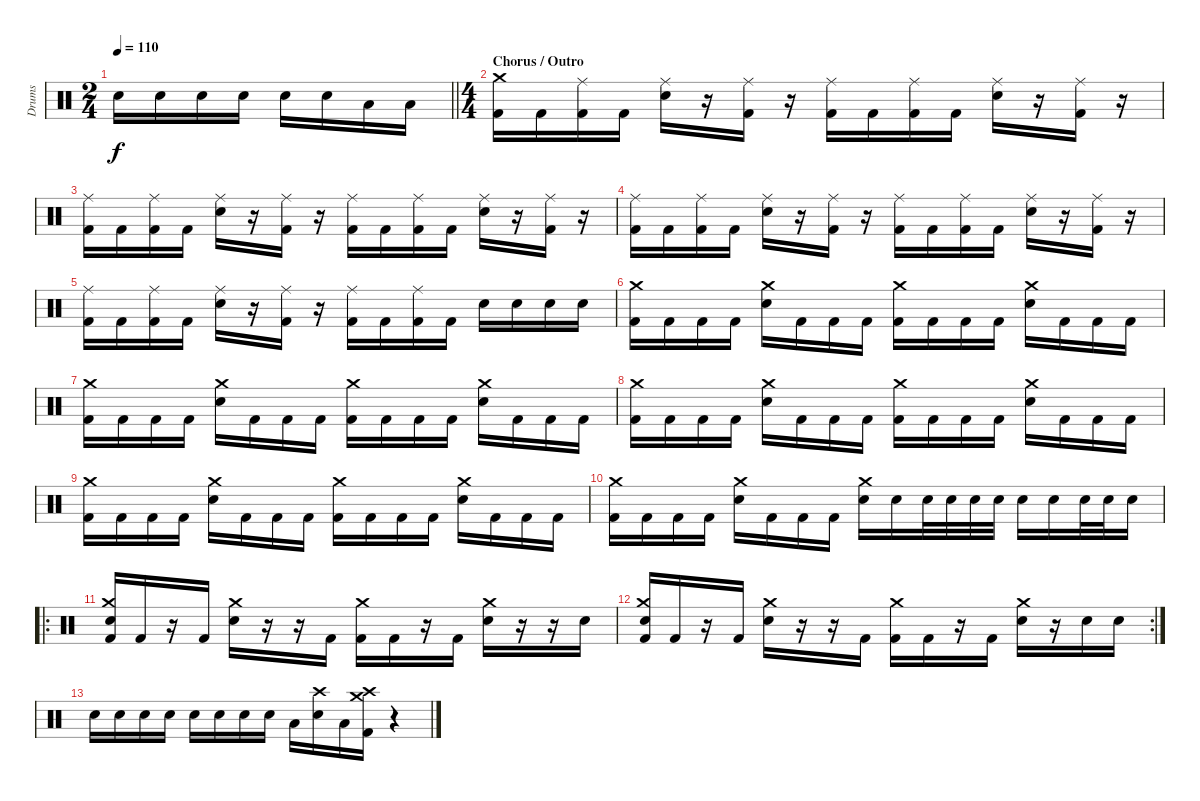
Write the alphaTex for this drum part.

\track ("Drums" "Drums") {instrument percussion}
\staff {score}
\articulation defaults
\ts (2 4)
\tempo 110
\clef neutral
\barLineRight lightlight
\ks c "Electric Snare (hit)".16{dy f} "Electric Snare (hit)".16 "Electric Snare (hit)".16 "Electric Snare (hit)".16 "Electric Snare (hit)".16 "Electric Snare (hit)".16 "Low Tom (hit)".16 "Low Tom (hit)".16
|
\ts (4 4)
\section ("" "Chorus / Outro")
("Crash medium (hit)" "Kick (hit) 2").16 "Kick (hit) 2".16 ("Ride (middle)" "Kick (hit) 2").16 "Kick (hit) 2".16 ("Ride (middle)" "Electric Snare (hit)").16 r.16 ("Ride (middle)" "Kick (hit) 2").16 r.16 ("Ride (middle)" "Kick (hit) 2").16 "Kick (hit) 2".16 ("Ride (middle)" "Kick (hit) 2").16 "Kick (hit) 2".16 ("Ride (middle)" "Electric Snare (hit)").16 r.16 ("Ride (middle)" "Kick (hit) 2").16 r.16 |
("Ride (middle)" "Kick (hit) 2").16 "Kick (hit) 2".16 ("Ride (middle)" "Kick (hit) 2").16 "Kick (hit) 2".16 ("Ride (middle)" "Electric Snare (hit)").16 r.16 ("Ride (middle)" "Kick (hit) 2").16 r.16 ("Ride (middle)" "Kick (hit) 2").16 "Kick (hit) 2".16 ("Ride (middle)" "Kick (hit) 2").16 "Kick (hit) 2".16 ("Ride (middle)" "Electric Snare (hit)").16 r.16 ("Ride (middle)" "Kick (hit) 2").16 r.16 |
("Ride (middle)" "Kick (hit) 2").16 "Kick (hit) 2".16 ("Ride (middle)" "Kick (hit) 2").16 "Kick (hit) 2".16 ("Ride (middle)" "Electric Snare (hit)").16 r.16 ("Ride (middle)" "Kick (hit) 2").16 r.16 ("Ride (middle)" "Kick (hit) 2").16 "Kick (hit) 2".16 ("Ride (middle)" "Kick (hit) 2").16 "Kick (hit) 2".16 ("Ride (middle)" "Electric Snare (hit)").16 r.16 ("Ride (middle)" "Kick (hit) 2").16 r.16 |
("Ride (middle)" "Kick (hit) 2").16 "Kick (hit) 2".16 ("Ride (middle)" "Kick (hit) 2").16 "Kick (hit) 2".16 ("Ride (middle)" "Electric Snare (hit)").16 r.16 ("Ride (middle)" "Kick (hit) 2").16 r.16 ("Ride (middle)" "Kick (hit) 2").16 "Kick (hit) 2".16 ("Ride (middle)" "Kick (hit) 2").16 "Kick (hit) 2".16 "Electric Snare (hit)".16 "Electric Snare (hit)".16 "Electric Snare (hit)".16 "Electric Snare (hit)".16 |
("Crash medium (hit)" "Kick (hit) 2").16 "Kick (hit) 2".16 "Kick (hit) 2".16 "Kick (hit) 2".16 ("Crash medium (hit)" "Electric Snare (hit)").16 "Kick (hit) 2".16 "Kick (hit) 2".16 "Kick (hit) 2".16 ("Crash medium (hit)" "Kick (hit) 2").16 "Kick (hit) 2".16 "Kick (hit) 2".16 "Kick (hit) 2".16 ("Crash medium (hit)" "Electric Snare (hit)").16 "Kick (hit) 2".16 "Kick (hit) 2".16 "Kick (hit) 2".16 |
("Crash medium (hit)" "Kick (hit) 2").16 "Kick (hit) 2".16 "Kick (hit) 2".16 "Kick (hit) 2".16 ("Crash medium (hit)" "Electric Snare (hit)").16 "Kick (hit) 2".16 "Kick (hit) 2".16 "Kick (hit) 2".16 ("Crash medium (hit)" "Kick (hit) 2").16 "Kick (hit) 2".16 "Kick (hit) 2".16 "Kick (hit) 2".16 ("Crash medium (hit)" "Electric Snare (hit)").16 "Kick (hit) 2".16 "Kick (hit) 2".16 "Kick (hit) 2".16 |
("Crash medium (hit)" "Kick (hit) 2").16 "Kick (hit) 2".16 "Kick (hit) 2".16 "Kick (hit) 2".16 ("Crash medium (hit)" "Electric Snare (hit)").16 "Kick (hit) 2".16 "Kick (hit) 2".16 "Kick (hit) 2".16 ("Crash medium (hit)" "Kick (hit) 2").16 "Kick (hit) 2".16 "Kick (hit) 2".16 "Kick (hit) 2".16 ("Crash medium (hit)" "Electric Snare (hit)").16 "Kick (hit) 2".16 "Kick (hit) 2".16 "Kick (hit) 2".16 |
("Crash medium (hit)" "Kick (hit) 2").16 "Kick (hit) 2".16 "Kick (hit) 2".16 "Kick (hit) 2".16 ("Crash medium (hit)" "Electric Snare (hit)").16 "Kick (hit) 2".16 "Kick (hit) 2".16 "Kick (hit) 2".16 ("Crash medium (hit)" "Kick (hit) 2").16 "Kick (hit) 2".16 "Kick (hit) 2".16 "Kick (hit) 2".16 ("Crash medium (hit)" "Electric Snare (hit)").16 "Kick (hit) 2".16 "Kick (hit) 2".16 "Kick (hit) 2".16 |
("Crash medium (hit)" "Kick (hit) 2").16 "Kick (hit) 2".16 "Kick (hit) 2".16 "Kick (hit) 2".16 ("Crash medium (hit)" "Electric Snare (hit)").16 "Kick (hit) 2".16 "Kick (hit) 2".16 "Kick (hit) 2".16 ("Crash medium (hit)" "Electric Snare (hit)").16 "Electric Snare (hit)".16 "Electric Snare (hit)".32 "Electric Snare (hit)".32 "Electric Snare (hit)".32 "Electric Snare (hit)".32 "Electric Snare (hit)".16 "Electric Snare (hit)".16 "Electric Snare (hit)".32 "Electric Snare (hit)".32 "Electric Snare (hit)".16 |
\ro
("Crash medium (hit)" "Electric Snare (hit)" "Kick (hit) 2").16 "Kick (hit) 2".16 r.16 "Kick (hit) 2".16 ("Crash medium (hit)" "Electric Snare (hit)").16 r.16 r.16 "Kick (hit) 2".16 ("Crash medium (hit)" "Kick (hit) 2").16 "Kick (hit) 2".16 r.16 "Kick (hit) 2".16 ("Crash medium (hit)" "Electric Snare (hit)").16 r.16 r.16 "Electric Snare (hit)".16 |
\rc 2
("Crash medium (hit)" "Electric Snare (hit)" "Kick (hit) 2").16 "Kick (hit) 2".16 r.16 "Kick (hit) 2".16 ("Crash medium (hit)" "Electric Snare (hit)").16 r.16 r.16 "Kick (hit) 2".16 ("Crash medium (hit)" "Kick (hit) 2").16 "Kick (hit) 2".16 r.16 "Kick (hit) 2".16 ("Crash medium (hit)" "Electric Snare (hit)").16 r.16 "Electric Snare (hit)".16 "Electric Snare (hit)".16 |
"Electric Snare (hit)".16 "Electric Snare (hit)".16 "Electric Snare (hit)".16 "Electric Snare (hit)".16 "Electric Snare (hit)".16 "Electric Snare (hit)".16 "Electric Snare (hit)".16 "Electric Snare (hit)".16 "Low Tom (hit)".16 ("Crash high (hit)" "Electric Snare (hit)").16 "Low Tom (hit)".16 ("Crash medium (hit)" "Crash high (hit)" "Kick (hit) 2").16 r.4
